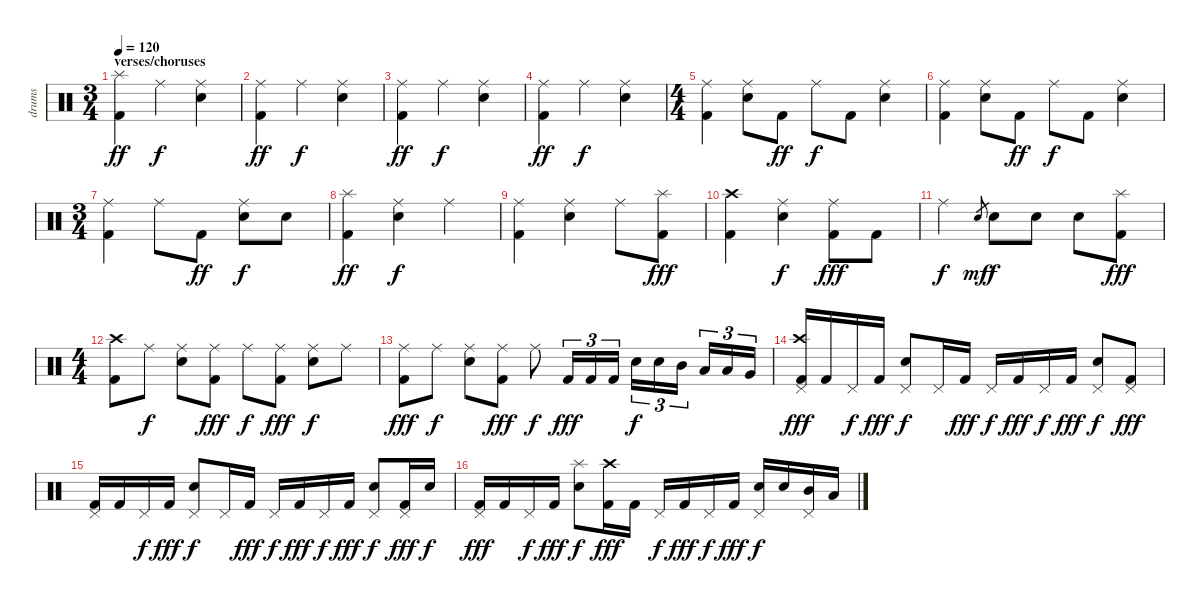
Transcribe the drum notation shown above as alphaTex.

\track ("drums" "drums") {instrument percussion}
\staff {score}
\articulation defaults
\ts (3 4)
\section ("" "verses/choruses")
\tempo 120
\clef neutral
\ks c
("Splash (hit)" "Kick (hit) 2").4{dy ff} "Ride (middle)".4{dy f} ("Ride (middle)" "Electric Snare (hit)").4 |
("Ride (middle)" "Kick (hit) 2").4{dy ff} "Ride (middle)".4{dy f} ("Ride (middle)" "Electric Snare (hit)").4 |
("Ride (middle)" "Kick (hit) 2").4{dy ff} "Ride (middle)".4{dy f} ("Ride (middle)" "Electric Snare (hit)").4 |
("Ride (middle)" "Kick (hit) 2").4{dy ff} "Ride (middle)".4{dy f} ("Ride (middle)" "Electric Snare (hit)").4 |
\ts (4 4)
("Ride (middle)" "Kick (hit) 2").4 ("Ride (middle)" "Electric Snare (hit)").8 "Kick (hit) 2".8{dy ff} "Ride (middle)".8{dy f} "Kick (hit) 2".8 ("Ride (middle)" "Electric Snare (hit)").4 |
("Ride (middle)" "Kick (hit) 2").4 ("Ride (middle)" "Electric Snare (hit)").8 "Kick (hit) 2".8{dy ff} "Ride (middle)".8{dy f} "Kick (hit) 2".8 ("Ride (middle)" "Electric Snare (hit)").4 |
\ts (3 4)
("Ride (middle)" "Kick (hit) 2").4 "Ride (middle)".8 "Kick (hit) 2".8{dy ff} ("Ride (middle)" "Electric Snare (hit)").8{dy f} "Electric Snare (hit)".8 |
("Splash (hit)" "Kick (hit) 2").4{dy ff} ("Ride (middle)" "Electric Snare (hit)").4{dy f} "Ride (middle)".4 |
("Ride (middle)" "Kick (hit) 2").4 ("Ride (middle)" "Electric Snare (hit)").4 "Ride (middle)".8 ("Splash (hit)" "Kick (hit) 2").8{dy fff} |
("Crash high (hit)" "Kick (hit) 2").4 ("Ride (middle)" "Electric Snare (hit)").4{dy f} ("Ride (middle)" "Kick (hit) 2").8{dy fff} "Kick (hit) 2".8 |
"Ride (middle)".4{dy f} "Electric Snare (hit)".8{gr dy mf} "Electric Snare (hit)".8{dy f} "Electric Snare (hit)".8 "Electric Snare (hit)".8 ("Splash (hit)" "Kick (hit) 2").8{dy fff} |
\ts (4 4)
("Crash high (hit)" "Kick (hit) 2").8 "Ride (middle)".8{dy f} ("Ride (middle)" "Electric Snare (hit)").8 ("Ride (middle)" "Kick (hit) 2").8{dy fff} "Ride (middle)".8{dy f} ("Ride (middle)" "Kick (hit) 2").8{dy fff} ("Ride (middle)" "Electric Snare (hit)").8{dy f} "Ride (middle)".8 |
("Ride (middle)" "Kick (hit) 2").8{dy fff} "Ride (middle)".8{dy f} ("Ride (middle)" "Electric Snare (hit)").8 ("Ride (middle)" "Kick (hit) 2").8{dy fff} "Ride (middle)".8{dy f} "Kick (hit) 2".16{tu (3 2) dy fff} "Kick (hit) 2".16{tu (3 2)} "Kick (hit) 2".16{tu (3 2)} "Electric Snare (hit)".16{tu (3 2) dy f} "Electric Snare (hit)".16{tu (3 2)} "Mid Tom (hit)".16{tu (3 2)} "Low Tom (hit)".16{tu (3 2)} "Low Tom (hit)".16{tu (3 2)} "Very Low Tom (hit)".16{tu (3 2)} |
("Crash high (hit)" "Pedal Hi-Hat (hit)" "Kick (hit) 2").16{dy fff} "Kick (hit) 2".16 "Pedal Hi-Hat (hit)".16{dy f} "Kick (hit) 2".16{dy fff} ("Pedal Hi-Hat (hit)" "Electric Snare (hit)").8{dy f} "Pedal Hi-Hat (hit)".16 "Kick (hit) 2".16{dy fff} "Pedal Hi-Hat (hit)".16{dy f} "Kick (hit) 2".16{dy fff} "Pedal Hi-Hat (hit)".16{dy f} "Kick (hit) 2".16{dy fff} ("Pedal Hi-Hat (hit)" "Electric Snare (hit)").8{dy f} ("Pedal Hi-Hat (hit)" "Kick (hit) 2").8{dy fff} |
("Pedal Hi-Hat (hit)" "Kick (hit) 2").16 "Kick (hit) 2".16 "Pedal Hi-Hat (hit)".16{dy f} "Kick (hit) 2".16{dy fff} ("Pedal Hi-Hat (hit)" "Electric Snare (hit)").8{dy f} "Pedal Hi-Hat (hit)".16 "Kick (hit) 2".16{dy fff} "Pedal Hi-Hat (hit)".16{dy f} "Kick (hit) 2".16{dy fff} "Pedal Hi-Hat (hit)".16{dy f} "Kick (hit) 2".16{dy fff} ("Pedal Hi-Hat (hit)" "Electric Snare (hit)").8{dy f} ("Pedal Hi-Hat (hit)" "Kick (hit) 2").16{dy fff} "Electric Snare (hit)".16{dy f} |
("Pedal Hi-Hat (hit)" "Kick (hit) 2").16{dy fff} "Kick (hit) 2".16 "Pedal Hi-Hat (hit)".16{dy f} "Kick (hit) 2".16{dy fff} ("Splash (hit)" "Electric Snare (hit)").8{dy f} ("Crash high (hit)" "Kick (hit) 2").16{dy fff} "Kick (hit) 2".16 "Pedal Hi-Hat (hit)".16{dy f} "Kick (hit) 2".16{dy fff} "Pedal Hi-Hat (hit)".16{dy f} "Kick (hit) 2".16{dy fff} ("Pedal Hi-Hat (hit)" "Electric Snare (hit)").16{dy f} "Electric Snare (hit)".16 ("Pedal Hi-Hat (hit)" "Mid Tom (hit)").16 "Low Tom (hit)".16
